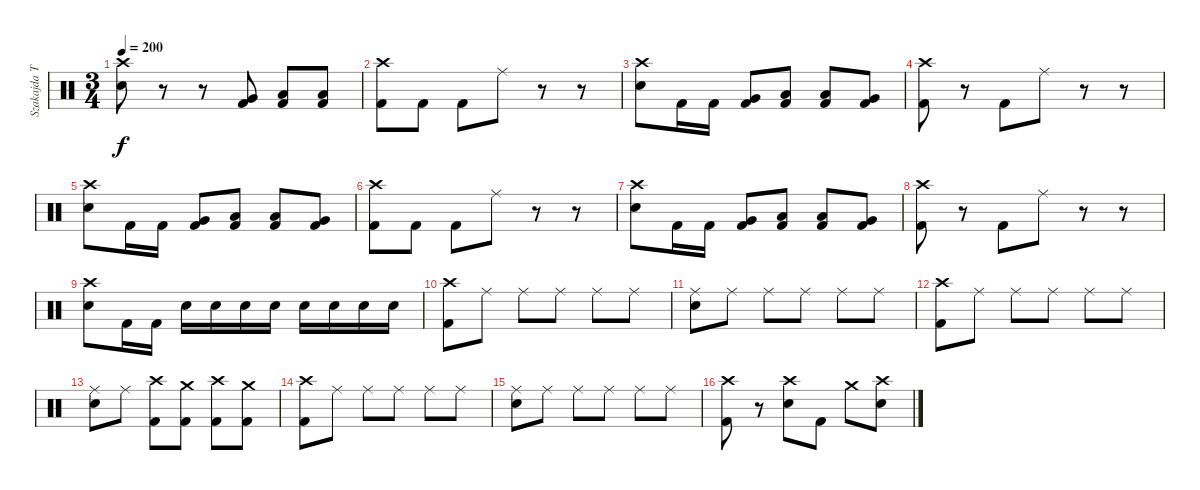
\track ("Szakajda Tibi" "Szakajda T") {instrument percussion}
\staff {score}
\articulation defaults
\ts (3 4)
\tempo 200
\clef neutral
\ks c
("Crash high (hit)" "Electric Snare (hit)").8{dy f} r.8 r.8 ("Very Low Tom (hit)" "Kick (hit) 2").8 ("Low Tom (hit)" "Kick (hit) 2").8 ("Low Floor Tom (hit)" "Kick (hit) 2").8 |
("Crash high (hit)" "Kick (hit) 2").8 "Kick (hit) 2".8 "Kick (hit) 2".8 "Ride (middle)".8 r.8 r.8 |
("Crash high (hit)" "Electric Snare (hit)").8 "Kick (hit) 2".16 "Kick (hit) 2".16 ("Very Low Tom (hit)" "Kick (hit) 2").8 ("Low Tom (hit)" "Kick (hit) 2").8 ("Low Floor Tom (hit)" "Kick (hit) 2").8 ("Very Low Tom (hit)" "Kick (hit) 2").8 |
("Crash high (hit)" "Kick (hit) 2").8 r.8 "Kick (hit) 2".8 "Ride (middle)".8 r.8 r.8 |
("Crash high (hit)" "Electric Snare (hit)").8 "Kick (hit) 2".16 "Kick (hit) 2".16 ("Very Low Tom (hit)" "Kick (hit) 2").8 ("Low Tom (hit)" "Kick (hit) 2").8 ("Low Floor Tom (hit)" "Kick (hit) 2").8 ("Very Low Tom (hit)" "Kick (hit) 2").8 |
("Crash high (hit)" "Kick (hit) 2").8 "Kick (hit) 2".8 "Kick (hit) 2".8 "Ride (middle)".8 r.8 r.8 |
("Crash high (hit)" "Electric Snare (hit)").8 "Kick (hit) 2".16 "Kick (hit) 2".16 ("Very Low Tom (hit)" "Kick (hit) 2").8 ("Low Tom (hit)" "Kick (hit) 2").8 ("Low Floor Tom (hit)" "Kick (hit) 2").8 ("Very Low Tom (hit)" "Kick (hit) 2").8 |
("Crash high (hit)" "Kick (hit) 2").8 r.8 "Kick (hit) 2".8 "Ride (middle)".8 r.8 r.8 |
("Crash high (hit)" "Electric Snare (hit)").8 "Kick (hit) 2".16 "Kick (hit) 2".16 "Electric Snare (hit)".16 "Electric Snare (hit)".16 "Electric Snare (hit)".16 "Electric Snare (hit)".16 "Electric Snare (hit)".16 "Electric Snare (hit)".16 "Electric Snare (hit)".16 "Electric Snare (hit)".16 |
("Crash high (hit)" "Kick (hit) 2").8 "Ride (middle)".8 "Ride (middle)".8 "Ride (middle)".8 "Ride (middle)".8 "Ride (middle)".8 |
("Ride (middle)" "Electric Snare (hit)").8 "Ride (middle)".8 "Ride (middle)".8 "Ride (middle)".8 "Ride (middle)".8 "Ride (middle)".8 |
("Crash high (hit)" "Kick (hit) 2").8 "Ride (middle)".8 "Ride (middle)".8 "Ride (middle)".8 "Ride (middle)".8 "Ride (middle)".8 |
("Ride (middle)" "Electric Snare (hit)").8 "Ride (middle)".8 ("Crash high (hit)" "Kick (hit) 2").8 ("Crash medium (hit)" "Kick (hit) 2").8 ("Crash high (hit)" "Kick (hit) 2").8 ("Crash medium (hit)" "Kick (hit) 2").8 |
("Crash high (hit)" "Kick (hit) 2").8 "Ride (middle)".8 "Ride (middle)".8 "Ride (middle)".8 "Ride (middle)".8 "Ride (middle)".8 |
("Ride (middle)" "Electric Snare (hit)").8 "Ride (middle)".8 "Ride (middle)".8 "Ride (middle)".8 "Ride (middle)".8 "Ride (middle)".8 |
("Crash high (hit)" "Kick (hit) 2").8 r.8 ("Crash high (hit)" "Electric Snare (hit)").8 "Kick (hit) 2".8 "Crash medium (hit)".8 ("Crash high (hit)" "Electric Snare (hit)").8
